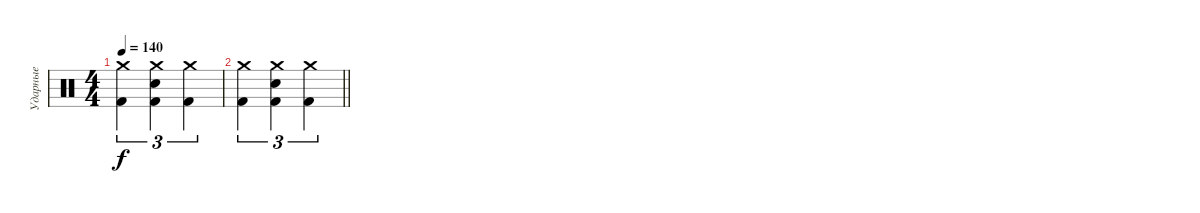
\track ("Ударные" "Ударные") {instrument percussion}
\staff {score}
\articulation defaults
\ts (4 4)
\tempo 140
\clef neutral
\ks c
("Crash medium (hit)" "Kick (hit) 2").4{tu (3 2) dy f} ("Crash medium (hit)" "Electric Snare (hit)" "Kick (hit) 2").4{tu (3 2)} ("Crash medium (hit)" "Kick (hit) 2").4{tu (3 2)} |
\barLineRight lightlight
("Crash medium (hit)" "Kick (hit) 2").4{tu (3 2)} ("Crash medium (hit)" "Electric Snare (hit)" "Kick (hit) 2").4{tu (3 2)} ("Crash medium (hit)" "Kick (hit) 2").4{tu (3 2)}
